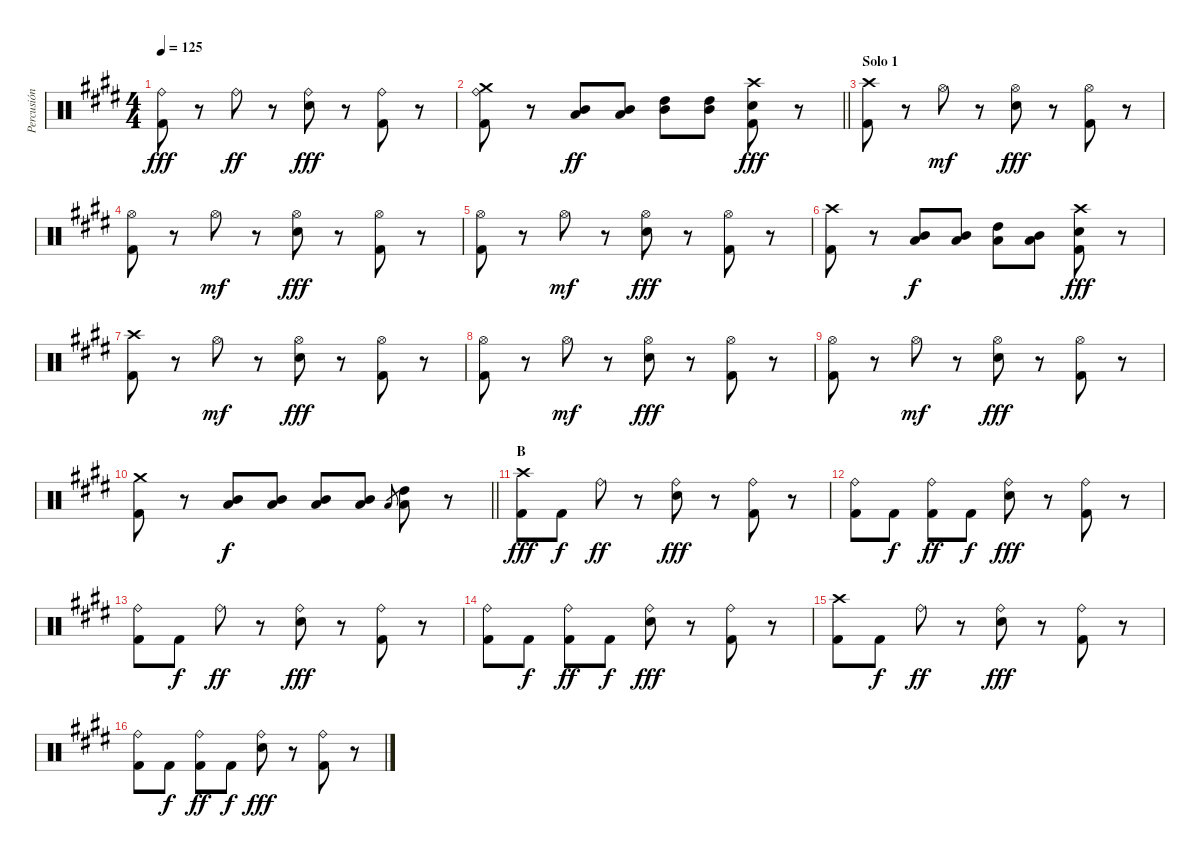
\track ("Percusión" "Percusión") {instrument percussion}
\staff {score}
\articulation defaults
\ts (4 4)
\tempo 125
\clef neutral
\ks e
("Ride (bell)" "Kick (hit) 2").8{dy fff} r.8 "Ride (bell)".8{dy ff} r.8 ("Ride (bell)" "Electric Snare (hit)").8{dy fff} r.8 ("Ride (bell)" "Kick (hit) 2").8 r.8 |
\barLineRight lightlight
("Ride (bell)" "Crash medium (hit)" "Kick (hit) 2").8 r.8 ("Mid Tom (hit)" "Low Tom (hit)").8{dy ff} ("Mid Tom (hit)" "Low Tom (hit)").8 ("Mid Tom (hit)" "High Tom (hit)").8 ("Mid Tom (hit)" "High Tom (hit)").8 ("Crash high (hit)" "Electric Snare (hit)" "Kick (hit) 2").8{dy fff} r.8 |
\section ("" "Solo 1")
("Crash high (hit)" "Kick (hit) 2").8 r.8 "Hi-Hat (open)".8{dy mf} r.8 ("Hi-Hat (open)" "Electric Snare (hit)").8{dy fff} r.8 ("Hi-Hat (open)" "Kick (hit) 2").8 r.8 |
("Hi-Hat (open)" "Kick (hit) 2").8 r.8 "Hi-Hat (open)".8{dy mf} r.8 ("Hi-Hat (open)" "Electric Snare (hit)").8{dy fff} r.8 ("Hi-Hat (open)" "Kick (hit) 2").8 r.8 |
("Hi-Hat (open)" "Kick (hit) 2").8 r.8 "Hi-Hat (open)".8{dy mf} r.8 ("Hi-Hat (open)" "Electric Snare (hit)").8{dy fff} r.8 ("Hi-Hat (open)" "Kick (hit) 2").8 r.8 |
("Crash high (hit)" "Kick (hit) 2").8 r.8 ("Mid Tom (hit)" "Low Tom (hit)").8{dy f} ("Mid Tom (hit)" "Low Tom (hit)").8 ("High Tom (hit)" "Low Tom (hit)").8 ("Mid Tom (hit)" "Low Tom (hit)").8 ("Crash high (hit)" "Electric Snare (hit)" "Kick (hit) 2").8{dy fff} r.8 |
("Crash high (hit)" "Kick (hit) 2").8 r.8 "Hi-Hat (open)".8{dy mf} r.8 ("Hi-Hat (open)" "Electric Snare (hit)").8{dy fff} r.8 ("Hi-Hat (open)" "Kick (hit) 2").8 r.8 |
("Hi-Hat (open)" "Kick (hit) 2").8 r.8 "Hi-Hat (open)".8{dy mf} r.8 ("Hi-Hat (open)" "Electric Snare (hit)").8{dy fff} r.8 ("Hi-Hat (open)" "Kick (hit) 2").8 r.8 |
("Hi-Hat (open)" "Kick (hit) 2").8 r.8 "Hi-Hat (open)".8{dy mf} r.8 ("Hi-Hat (open)" "Electric Snare (hit)").8{dy fff} r.8 ("Hi-Hat (open)" "Kick (hit) 2").8 r.8 |
\barLineRight lightlight
("Crash medium (hit)" "Kick (hit) 2").8 r.8 ("Low Tom (hit)" "Mid Tom (hit)").8{dy f} ("Low Tom (hit)" "Mid Tom (hit)").8 ("Low Tom (hit)" "Mid Tom (hit)").8 ("Low Tom (hit)" "Mid Tom (hit)").8 "Low Tom (hit)".8{gr} ("Low Tom (hit)" "High Tom (hit)").8 r.8 |
\section ("" "B")
("Crash high (hit)" "Kick (hit) 2").8{dy fff} "Kick (hit) 2".8{dy f} "Ride (bell)".8{dy ff} r.8 ("Ride (bell)" "Electric Snare (hit)").8{dy fff} r.8 ("Ride (bell)" "Kick (hit) 2").8 r.8 |
("Ride (bell)" "Kick (hit) 2").8 "Kick (hit) 2".8{dy f} ("Ride (bell)" "Kick (hit) 2").8{dy ff} "Kick (hit) 2".8{dy f} ("Ride (bell)" "Electric Snare (hit)").8{dy fff} r.8 ("Ride (bell)" "Kick (hit) 2").8 r.8 |
("Ride (bell)" "Kick (hit) 2").8 "Kick (hit) 2".8{dy f} "Ride (bell)".8{dy ff} r.8 ("Ride (bell)" "Electric Snare (hit)").8{dy fff} r.8 ("Ride (bell)" "Kick (hit) 2").8 r.8 |
("Ride (bell)" "Kick (hit) 2").8 "Kick (hit) 2".8{dy f} ("Ride (bell)" "Kick (hit) 2").8{dy ff} "Kick (hit) 2".8{dy f} ("Ride (bell)" "Electric Snare (hit)").8{dy fff} r.8 ("Ride (bell)" "Kick (hit) 2").8 r.8 |
("Crash high (hit)" "Kick (hit) 2").8 "Kick (hit) 2".8{dy f} "Ride (bell)".8{dy ff} r.8 ("Ride (bell)" "Electric Snare (hit)").8{dy fff} r.8 ("Ride (bell)" "Kick (hit) 2").8 r.8 |
("Ride (bell)" "Kick (hit) 2").8 "Kick (hit) 2".8{dy f} ("Ride (bell)" "Kick (hit) 2").8{dy ff} "Kick (hit) 2".8{dy f} ("Ride (bell)" "Electric Snare (hit)").8{dy fff} r.8 ("Ride (bell)" "Kick (hit) 2").8 r.8
